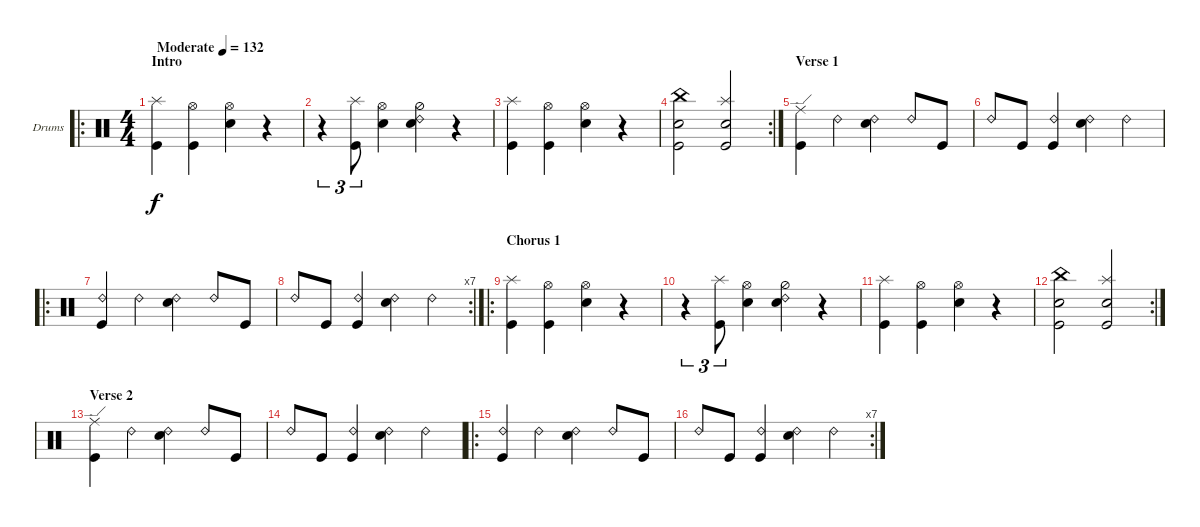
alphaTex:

\bracketExtendMode groupsimilarinstruments
\firstSystemTrackNameOrientation horizontal
\otherSystemsTrackNameOrientation horizontal
\track ("Drumkit" "Drums") {instrument percussion}
\staff {score}
\articulation defaults
\ro
\ts (4 4)
\beaming (8 2 2 2 2)
\section ("" "Intro")
\tempo (132 "Moderate")
\clef neutral
\ks c
("Kick (hit)" "Splash (hit)").4{dy f} ("Kick (hit)" "Hi-Hat (open)").4 ("Snare (hit) 2" "Hi-Hat (open)").4 r.4 |
r.4{tu (3 2)} ("Kick (hit)" "Splash (hit)").8{tu (3 2)} ("Snare (hit) 2" "Hi-Hat (open)").4 ("Snare (hit) 2" "Hi-Hat (half)" "Ride (bell) 2").4 r.4 |
("Kick (hit)" "Splash (hit)").4 ("Kick (hit)" "Hi-Hat (open)").4 ("Snare (hit) 2" "Hi-Hat (open)").4 r.4 |
\rc 2
("Snare (hit) 2" "Kick (hit)" "China (hit)").2 ("Snare (hit) 2" "Kick (hit)" "Splash (hit)").2 |
\section ("" "Verse 1")
("Ride (edge)" "Kick (hit)").4 "Ride (bell) 2".4 ("Ride (bell) 2" "Snare (hit) 2").4 "Ride (bell) 2".8 "Kick (hit)".8 |
"Ride (bell) 2".8 "Kick (hit)".8 ("Ride (bell) 2" "Kick (hit)").4 ("Ride (bell) 2" "Snare (hit) 2").4 "Ride (bell) 2".4 |
\ro
("Ride (bell) 2" "Kick (hit)").4 "Ride (bell) 2".4 ("Ride (bell) 2" "Snare (hit) 2").4 "Ride (bell) 2".8 "Kick (hit)".8 |
\rc 7 "Ride (bell) 2".8 "Kick (hit)".8
("Ride (bell) 2" "Kick (hit)").4 ("Ride (bell) 2" "Snare (hit) 2").4 "Ride (bell) 2".4 |
\ro
\section ("" "Chorus 1")
("Kick (hit)" "Splash (hit)").4 ("Kick (hit)" "Hi-Hat (open)").4 ("Snare (hit) 2" "Hi-Hat (open)").4 r.4 |
r.4{tu (3 2)} ("Kick (hit)" "Splash (hit)").8{tu (3 2)} ("Snare (hit) 2" "Hi-Hat (open)").4 ("Snare (hit) 2" "Hi-Hat (half)" "Ride (bell) 2").4 r.4 |
("Kick (hit)" "Splash (hit)").4 ("Kick (hit)" "Hi-Hat (open)").4 ("Snare (hit) 2" "Hi-Hat (open)").4 r.4 |
\rc 2
("Snare (hit) 2" "Kick (hit)" "China (hit)").2 ("Snare (hit) 2" "Kick (hit)" "Splash (hit)").2 |
\section ("" "Verse 2")
("Ride (edge)" "Kick (hit)").4 "Ride (bell) 2".4 ("Ride (bell) 2" "Snare (hit) 2").4 "Ride (bell) 2".8 "Kick (hit)".8 |
"Ride (bell) 2".8 "Kick (hit)".8 ("Ride (bell) 2" "Kick (hit)").4 ("Ride (bell) 2" "Snare (hit) 2").4 "Ride (bell) 2".4 |
\ro
("Ride (bell) 2" "Kick (hit)").4 "Ride (bell) 2".4 ("Ride (bell) 2" "Snare (hit) 2").4 "Ride (bell) 2".8 "Kick (hit)".8 |
\rc 7 "Ride (bell) 2".8 "Kick (hit)".8
("Ride (bell) 2" "Kick (hit)").4 ("Ride (bell) 2" "Snare (hit) 2").4 "Ride (bell) 2".4
